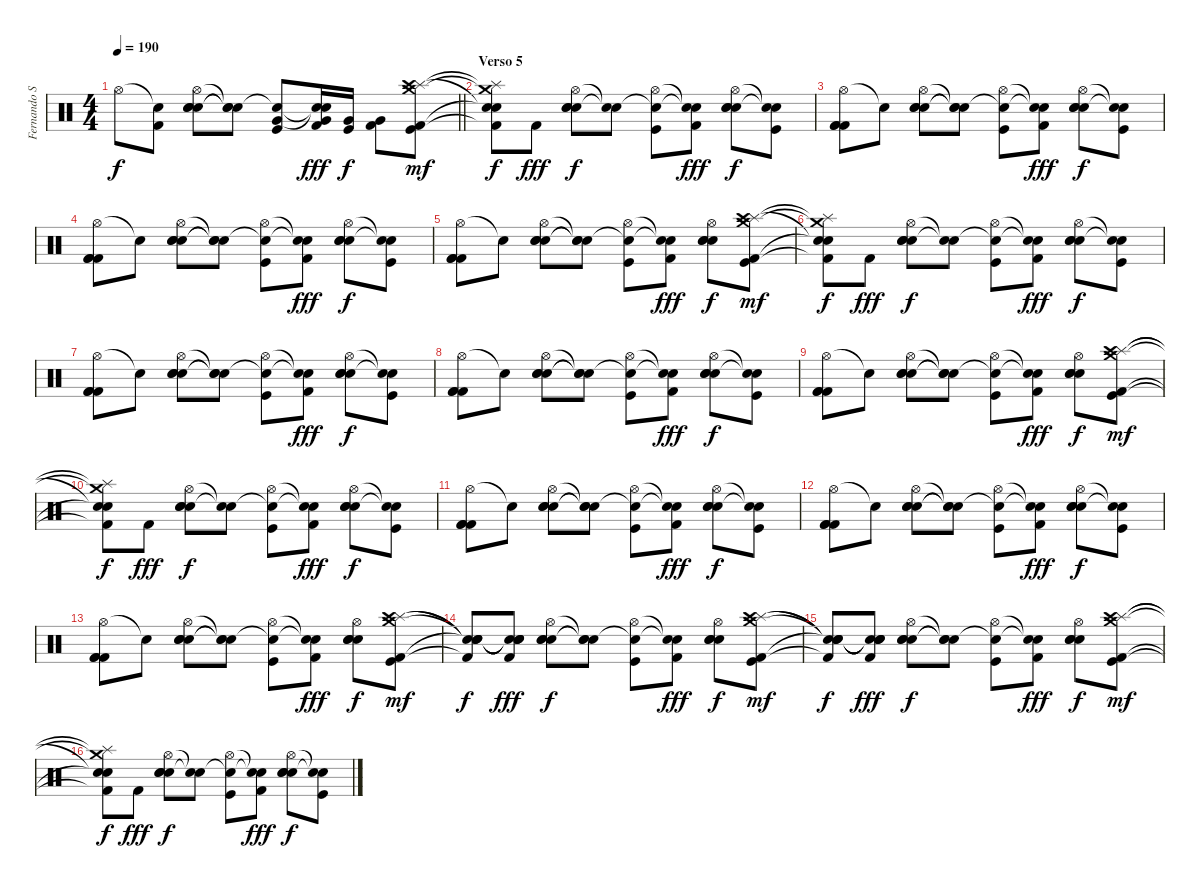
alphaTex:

\track ("Fernando Scarcella" "Fernando S") {instrument percussion}
\staff {score}
\articulation defaults
\ts (4 4)
\tempo 190
\clef neutral
\barLineRight lightlight
\ks c "Hi-Hat (open)".8{dy f}
("Snare (hit)"{t} "Kick (hit) 2").8 ("Hi-Hat (open)" "Electric Snare (hit)" "Electric Snare (hit)" "Electric Snare (hit)").8 ("Snare (hit)"{t} "Snare (hit)"{t} "Snare (hit)"{t}).8 ("Snare (hit)"{t} "Very Low Tom (hit)" "Kick (hit)").8 ("Snare (hit)"{t} "Snare (hit)"{t} "Very Low Tom (hit)" "Kick (hit) 2").16{dy fff} ("Very Low Tom (hit)" "Kick (hit)").16{dy f} ("Very Low Tom (hit)" "Kick (hit) 2").8 ("Crash medium (hit)" "Splash (hit)" "Crash high (hit)" "Kick (hit) 2" "Kick (hit)").8{dy mf} |
\section ("" "Verso 5")
("Crash medium (hit)"{t} "Splash (hit)"{t} "Snare (hit)"{t} "Snare (hit)"{t} "Kick (hit) 2"{t}).8{dy f} "Kick (hit) 2".8{dy fff} ("Hi-Hat (open)" "Electric Snare (hit)" "Electric Snare (hit)" "Electric Snare (hit)").8{dy f} ("Snare (hit)"{t} "Snare (hit)"{t}).8 ("Hi-Hat (open)" "Snare (hit)"{t} "Kick (hit)").8 ("Snare (hit)"{t} "Snare (hit)"{t} "Kick (hit) 2").8{dy fff} ("Hi-Hat (open)" "Electric Snare (hit)" "Electric Snare (hit)" "Electric Snare (hit)").8{dy f} ("Snare (hit)"{t} "Snare (hit)"{t} "Kick (hit)").8 |
("Hi-Hat (open)" "Kick (hit) 2" "Kick (hit) 2" "Kick (hit) 2").8 "Snare (hit)"{t}.8 ("Hi-Hat (open)" "Electric Snare (hit)" "Electric Snare (hit)" "Electric Snare (hit)").8 ("Snare (hit)"{t} "Snare (hit)"{t} "Snare (hit)"{t}).8 ("Hi-Hat (open)" "Snare (hit)"{t} "Kick (hit)").8 ("Snare (hit)"{t} "Snare (hit)"{t} "Kick (hit) 2").8{dy fff} ("Hi-Hat (open)" "Electric Snare (hit)" "Electric Snare (hit)" "Electric Snare (hit)").8{dy f} ("Snare (hit)"{t} "Snare (hit)"{t} "Kick (hit)").8 |
("Hi-Hat (open)" "Kick (hit) 2" "Kick (hit) 2" "Kick (hit) 2").8 "Snare (hit)"{t}.8 ("Hi-Hat (open)" "Electric Snare (hit)" "Electric Snare (hit)" "Electric Snare (hit)").8 ("Snare (hit)"{t} "Snare (hit)"{t} "Snare (hit)"{t}).8 ("Hi-Hat (open)" "Snare (hit)"{t} "Kick (hit)").8 ("Snare (hit)"{t} "Snare (hit)"{t} "Kick (hit) 2").8{dy fff} ("Hi-Hat (open)" "Electric Snare (hit)" "Electric Snare (hit)" "Electric Snare (hit)").8{dy f} ("Snare (hit)"{t} "Snare (hit)"{t} "Kick (hit)").8 |
("Hi-Hat (open)" "Kick (hit) 2" "Kick (hit) 2" "Kick (hit) 2").8 "Snare (hit)"{t}.8 ("Hi-Hat (open)" "Electric Snare (hit)" "Electric Snare (hit)" "Electric Snare (hit)").8 ("Snare (hit)"{t} "Snare (hit)"{t} "Snare (hit)"{t}).8 ("Hi-Hat (open)" "Snare (hit)"{t} "Kick (hit)").8 ("Snare (hit)"{t} "Snare (hit)"{t} "Kick (hit) 2").8{dy fff} ("Hi-Hat (open)" "Electric Snare (hit)" "Electric Snare (hit)" "Electric Snare (hit)").8{dy f} ("Crash medium (hit)" "Splash (hit)" "Crash high (hit)" "Kick (hit) 2" "Kick (hit)").8{dy mf} |
("Crash medium (hit)"{t} "Splash (hit)"{t} "Snare (hit)"{t} "Snare (hit)"{t} "Kick (hit) 2"{t}).8{dy f} "Kick (hit) 2".8{dy fff} ("Hi-Hat (open)" "Electric Snare (hit)" "Electric Snare (hit)" "Electric Snare (hit)").8{dy f} ("Snare (hit)"{t} "Snare (hit)"{t}).8 ("Hi-Hat (open)" "Snare (hit)"{t} "Kick (hit)").8 ("Snare (hit)"{t} "Snare (hit)"{t} "Kick (hit) 2").8{dy fff} ("Hi-Hat (open)" "Electric Snare (hit)" "Electric Snare (hit)" "Electric Snare (hit)").8{dy f} ("Snare (hit)"{t} "Snare (hit)"{t} "Kick (hit)").8 |
("Hi-Hat (open)" "Kick (hit) 2" "Kick (hit) 2" "Kick (hit) 2").8 "Snare (hit)"{t}.8 ("Hi-Hat (open)" "Electric Snare (hit)" "Electric Snare (hit)" "Electric Snare (hit)").8 ("Snare (hit)"{t} "Snare (hit)"{t} "Snare (hit)"{t}).8 ("Hi-Hat (open)" "Snare (hit)"{t} "Kick (hit)").8 ("Snare (hit)"{t} "Snare (hit)"{t} "Kick (hit) 2").8{dy fff} ("Hi-Hat (open)" "Electric Snare (hit)" "Electric Snare (hit)" "Electric Snare (hit)").8{dy f} ("Snare (hit)"{t} "Snare (hit)"{t} "Kick (hit)").8 |
("Hi-Hat (open)" "Kick (hit) 2" "Kick (hit) 2" "Kick (hit) 2").8 "Snare (hit)"{t}.8 ("Hi-Hat (open)" "Electric Snare (hit)" "Electric Snare (hit)" "Electric Snare (hit)").8 ("Snare (hit)"{t} "Snare (hit)"{t} "Snare (hit)"{t}).8 ("Hi-Hat (open)" "Snare (hit)"{t} "Kick (hit)").8 ("Snare (hit)"{t} "Snare (hit)"{t} "Kick (hit) 2").8{dy fff} ("Hi-Hat (open)" "Electric Snare (hit)" "Electric Snare (hit)" "Electric Snare (hit)").8{dy f} ("Snare (hit)"{t} "Snare (hit)"{t} "Kick (hit)").8 |
("Hi-Hat (open)" "Kick (hit) 2" "Kick (hit) 2" "Kick (hit) 2").8 "Snare (hit)"{t}.8 ("Hi-Hat (open)" "Electric Snare (hit)" "Electric Snare (hit)" "Electric Snare (hit)").8 ("Snare (hit)"{t} "Snare (hit)"{t} "Snare (hit)"{t}).8 ("Hi-Hat (open)" "Snare (hit)"{t} "Kick (hit)").8 ("Snare (hit)"{t} "Snare (hit)"{t} "Kick (hit) 2").8{dy fff} ("Hi-Hat (open)" "Electric Snare (hit)" "Electric Snare (hit)" "Electric Snare (hit)").8{dy f} ("Crash medium (hit)" "Splash (hit)" "Crash high (hit)" "Kick (hit) 2" "Kick (hit)").8{dy mf} |
("Crash medium (hit)"{t} "Splash (hit)"{t} "Snare (hit)"{t} "Snare (hit)"{t} "Kick (hit) 2"{t}).8{dy f} "Kick (hit) 2".8{dy fff} ("Hi-Hat (open)" "Electric Snare (hit)" "Electric Snare (hit)" "Electric Snare (hit)").8{dy f} ("Snare (hit)"{t} "Snare (hit)"{t}).8 ("Hi-Hat (open)" "Snare (hit)"{t} "Kick (hit)").8 ("Snare (hit)"{t} "Snare (hit)"{t} "Kick (hit) 2").8{dy fff} ("Hi-Hat (open)" "Electric Snare (hit)" "Electric Snare (hit)" "Electric Snare (hit)").8{dy f} ("Snare (hit)"{t} "Snare (hit)"{t} "Kick (hit)").8 |
("Hi-Hat (open)" "Kick (hit) 2" "Kick (hit) 2" "Kick (hit) 2").8 "Snare (hit)"{t}.8 ("Hi-Hat (open)" "Electric Snare (hit)" "Electric Snare (hit)" "Electric Snare (hit)").8 ("Snare (hit)"{t} "Snare (hit)"{t} "Snare (hit)"{t}).8 ("Hi-Hat (open)" "Snare (hit)"{t} "Kick (hit)").8 ("Snare (hit)"{t} "Snare (hit)"{t} "Kick (hit) 2").8{dy fff} ("Hi-Hat (open)" "Electric Snare (hit)" "Electric Snare (hit)" "Electric Snare (hit)").8{dy f} ("Snare (hit)"{t} "Snare (hit)"{t} "Kick (hit)").8 |
("Hi-Hat (open)" "Kick (hit) 2" "Kick (hit) 2" "Kick (hit) 2").8 "Snare (hit)"{t}.8 ("Hi-Hat (open)" "Electric Snare (hit)" "Electric Snare (hit)" "Electric Snare (hit)").8 ("Snare (hit)"{t} "Snare (hit)"{t} "Snare (hit)"{t}).8 ("Hi-Hat (open)" "Snare (hit)"{t} "Kick (hit)").8 ("Snare (hit)"{t} "Snare (hit)"{t} "Kick (hit) 2").8{dy fff} ("Hi-Hat (open)" "Electric Snare (hit)" "Electric Snare (hit)" "Electric Snare (hit)").8{dy f} ("Snare (hit)"{t} "Snare (hit)"{t} "Kick (hit)").8 |
("Hi-Hat (open)" "Kick (hit) 2" "Kick (hit) 2" "Kick (hit) 2").8 "Snare (hit)"{t}.8 ("Hi-Hat (open)" "Electric Snare (hit)" "Electric Snare (hit)" "Electric Snare (hit)").8 ("Snare (hit)"{t} "Snare (hit)"{t} "Snare (hit)"{t}).8 ("Hi-Hat (open)" "Snare (hit)"{t} "Kick (hit)").8 ("Snare (hit)"{t} "Snare (hit)"{t} "Kick (hit) 2").8{dy fff} ("Hi-Hat (open)" "Electric Snare (hit)" "Electric Snare (hit)" "Electric Snare (hit)").8{dy f} ("Crash medium (hit)" "Splash (hit)" "Crash high (hit)" "Kick (hit) 2" "Kick (hit)").8{dy mf} |
("Snare (hit)"{t} "Snare (hit)"{t} "Snare (hit)"{t} "Snare (hit)"{t} "Kick (hit) 2"{t}).8{dy f} ("Snare (hit)"{t} "Snare (hit)"{t} "Snare (hit)"{t} "Snare (hit)"{t} "Kick (hit) 2").8{dy fff} ("Hi-Hat (open)" "Electric Snare (hit)" "Electric Snare (hit)" "Electric Snare (hit)").8{dy f} ("Snare (hit)"{t} "Snare (hit)"{t} "Snare (hit)"{t}).8 ("Hi-Hat (open)" "Snare (hit)"{t} "Kick (hit)").8 ("Snare (hit)"{t} "Snare (hit)"{t} "Kick (hit) 2").8{dy fff} ("Hi-Hat (open)" "Electric Snare (hit)" "Electric Snare (hit)" "Electric Snare (hit)").8{dy f} ("Crash medium (hit)" "Splash (hit)" "Crash high (hit)" "Kick (hit) 2" "Kick (hit)").8{dy mf} |
("Snare (hit)"{t} "Snare (hit)"{t} "Snare (hit)"{t} "Snare (hit)"{t} "Kick (hit) 2"{t}).8{dy f} ("Snare (hit)"{t} "Snare (hit)"{t} "Snare (hit)"{t} "Snare (hit)"{t} "Kick (hit) 2").8{dy fff} ("Hi-Hat (open)" "Electric Snare (hit)" "Electric Snare (hit)" "Electric Snare (hit)").8{dy f} ("Snare (hit)"{t} "Snare (hit)"{t} "Snare (hit)"{t}).8 ("Hi-Hat (open)" "Snare (hit)"{t} "Kick (hit)").8 ("Snare (hit)"{t} "Snare (hit)"{t} "Kick (hit) 2").8{dy fff} ("Hi-Hat (open)" "Electric Snare (hit)" "Electric Snare (hit)" "Electric Snare (hit)").8{dy f} ("Crash medium (hit)" "Splash (hit)" "Crash high (hit)" "Kick (hit) 2" "Kick (hit)").8{dy mf} |
("Crash medium (hit)"{t} "Splash (hit)"{t} "Snare (hit)"{t} "Snare (hit)"{t} "Kick (hit) 2"{t}).8{dy f} "Kick (hit) 2".8{dy fff} ("Hi-Hat (open)" "Electric Snare (hit)" "Electric Snare (hit)" "Electric Snare (hit)").8{dy f} ("Snare (hit)"{t} "Snare (hit)"{t}).8 ("Hi-Hat (open)" "Snare (hit)"{t} "Kick (hit)").8 ("Snare (hit)"{t} "Snare (hit)"{t} "Kick (hit) 2").8{dy fff} ("Hi-Hat (open)" "Electric Snare (hit)" "Electric Snare (hit)" "Electric Snare (hit)").8{dy f} ("Snare (hit)"{t} "Snare (hit)"{t} "Kick (hit)").8
